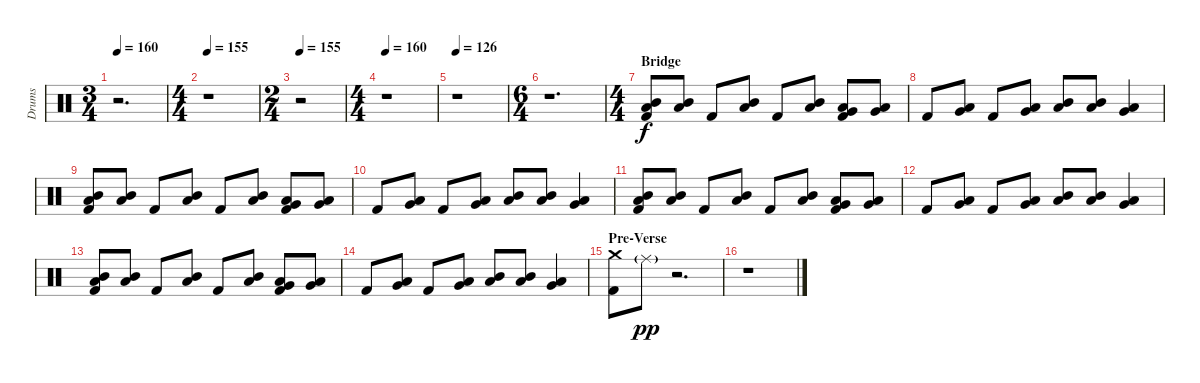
\bracketExtendMode groupsimilarinstruments
\track ("Drumkit" "Drums") {solo instrument percussion}
\staff {score}
\articulation defaults
\ts (3 4)
\beaming (8 3 1 1 1)
\tempo 160
\clef neutral
\ks c
r.2{d dy f} |
\ts (4 4)
\beaming (8 2 2 2 2)
\tempo 155
r.1 |
\ts (2 4)
\beaming (8 1 1 1 1)
\tempo 155
r.2 |
\ts (4 4)
\beaming (8 2 2 2 2)
\tempo 160
r.1 |
\tempo 126
r.1 |
\ts (6 4)
\beaming (8 3 3 3 3)
r.1{d} |
\ts (4 4)
\beaming (8 2 2 2 2)
\section ("" "Bridge")
("Mid Tom (hit)" "Low Tom (hit)" "Kick (hit) 2").8 ("Mid Tom (hit)" "Low Tom (hit)").8 "Kick (hit) 2".8 ("Mid Tom (hit)" "Low Tom (hit)").8 "Kick (hit) 2".8 ("Mid Tom (hit)" "Low Tom (hit)").8 ("Low Tom (hit)" "Very Low Tom (hit)" "Kick (hit) 2").8 ("Low Tom (hit)" "Very Low Tom (hit)").8 |
"Kick (hit) 2".8 ("Low Tom (hit)" "Very Low Tom (hit)").8 "Kick (hit) 2".8 ("Low Tom (hit)" "Very Low Tom (hit)").8 ("Mid Tom (hit)" "Low Tom (hit)").8 ("Mid Tom (hit)" "Low Tom (hit)").8 ("Low Tom (hit)" "Very Low Tom (hit)").4 |
("Mid Tom (hit)" "Low Tom (hit)" "Kick (hit) 2").8 ("Mid Tom (hit)" "Low Tom (hit)").8 "Kick (hit) 2".8 ("Mid Tom (hit)" "Low Tom (hit)").8 "Kick (hit) 2".8 ("Mid Tom (hit)" "Low Tom (hit)").8 ("Low Tom (hit)" "Very Low Tom (hit)" "Kick (hit) 2").8 ("Low Tom (hit)" "Very Low Tom (hit)").8 |
"Kick (hit) 2".8 ("Low Tom (hit)" "Very Low Tom (hit)").8 "Kick (hit) 2".8 ("Low Tom (hit)" "Very Low Tom (hit)").8 ("Mid Tom (hit)" "Low Tom (hit)").8 ("Mid Tom (hit)" "Low Tom (hit)").8 ("Low Tom (hit)" "Very Low Tom (hit)").4 |
("Mid Tom (hit)" "Low Tom (hit)" "Kick (hit) 2").8 ("Mid Tom (hit)" "Low Tom (hit)").8 "Kick (hit) 2".8 ("Mid Tom (hit)" "Low Tom (hit)").8 "Kick (hit) 2".8 ("Mid Tom (hit)" "Low Tom (hit)").8 ("Low Tom (hit)" "Very Low Tom (hit)" "Kick (hit) 2").8 ("Low Tom (hit)" "Very Low Tom (hit)").8 |
"Kick (hit) 2".8 ("Low Tom (hit)" "Very Low Tom (hit)").8 "Kick (hit) 2".8 ("Low Tom (hit)" "Very Low Tom (hit)").8 ("Mid Tom (hit)" "Low Tom (hit)").8 ("Mid Tom (hit)" "Low Tom (hit)").8 ("Low Tom (hit)" "Very Low Tom (hit)").4 |
("Mid Tom (hit)" "Low Tom (hit)" "Kick (hit) 2").8 ("Mid Tom (hit)" "Low Tom (hit)").8 "Kick (hit) 2".8 ("Mid Tom (hit)" "Low Tom (hit)").8 "Kick (hit) 2".8 ("Mid Tom (hit)" "Low Tom (hit)").8 ("Low Tom (hit)" "Very Low Tom (hit)" "Kick (hit) 2").8 ("Low Tom (hit)" "Very Low Tom (hit)").8 |
"Kick (hit) 2".8 ("Low Tom (hit)" "Very Low Tom (hit)").8 "Kick (hit) 2".8 ("Low Tom (hit)" "Very Low Tom (hit)").8 ("Mid Tom (hit)" "Low Tom (hit)").8 ("Mid Tom (hit)" "Low Tom (hit)").8 ("Low Tom (hit)" "Very Low Tom (hit)").4 |
\section ("" "Pre-Verse")
("Crash medium (hit)" "Kick (hit) 2").8 "Ride (middle)"{g}.8{dy pp} r.2{d} |
r.1
